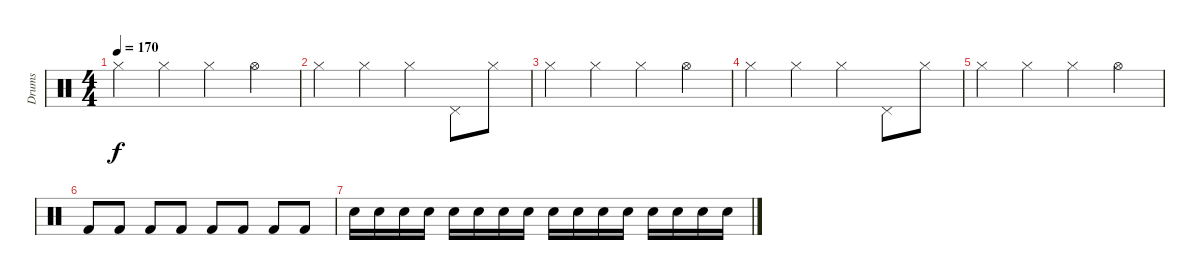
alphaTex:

\track ("Drums" "Drums") {instrument percussion}
\staff {score}
\articulation defaults
\ts (4 4)
\tempo 170
\clef neutral
\ks c "Hi-Hat (closed)".4{dy f} "Hi-Hat (closed)".4 "Hi-Hat (closed)".4 "Hi-Hat (open)".4
|
"Hi-Hat (closed)".4 "Hi-Hat (closed)".4 "Hi-Hat (closed)".4 "Pedal Hi-Hat (hit)".8 "Hi-Hat (closed)".8 |
"Hi-Hat (closed)".4 "Hi-Hat (closed)".4 "Hi-Hat (closed)".4 "Hi-Hat (open)".4 |
"Hi-Hat (closed)".4 "Hi-Hat (closed)".4 "Hi-Hat (closed)".4 "Pedal Hi-Hat (hit)".8 "Hi-Hat (closed)".8 |
"Hi-Hat (closed)".4 "Hi-Hat (closed)".4 "Hi-Hat (closed)".4 "Hi-Hat (open)".4 |
"Kick (hit) 2".8 "Kick (hit) 2".8 "Kick (hit) 2".8 "Kick (hit) 2".8 "Kick (hit) 2".8 "Kick (hit) 2".8 "Kick (hit) 2".8 "Kick (hit) 2".8 |
"Electric Snare (hit)".16 "Electric Snare (hit)".16 "Electric Snare (hit)".16 "Electric Snare (hit)".16 "Electric Snare (hit)".16 "Electric Snare (hit)".16 "Electric Snare (hit)".16 "Electric Snare (hit)".16 "Electric Snare (hit)".16 "Electric Snare (hit)".16 "Electric Snare (hit)".16 "Electric Snare (hit)".16 "Electric Snare (hit)".16 "Electric Snare (hit)".16 "Electric Snare (hit)".16 "Electric Snare (hit)".16
